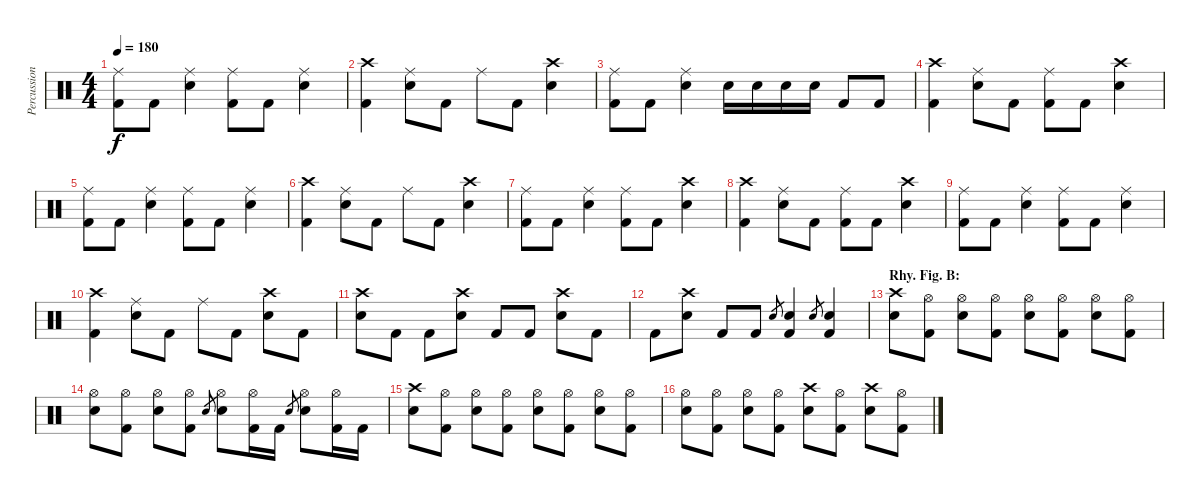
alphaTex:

\track ("Percussion" "Percussion") {instrument percussion}
\staff {score}
\articulation defaults
\ts (4 4)
\tempo 180
\clef neutral
\ks c
("Ride (middle)" "Kick (hit) 2").8{dy f} "Kick (hit) 2".8 ("Ride (middle)" "Snare (hit) 2").4 ("Ride (middle)" "Kick (hit) 2").8 "Kick (hit) 2".8 ("Ride (middle)" "Snare (hit) 2").4 |
("Crash high (hit)" "Kick (hit) 2").4 ("Ride (middle)" "Snare (hit) 2").8 "Kick (hit) 2".8 "Ride (middle)".8 "Kick (hit) 2".8 ("Crash high (hit)" "Snare (hit) 2").4 |
("Ride (middle)" "Kick (hit) 2").8 "Kick (hit) 2".8 ("Ride (middle)" "Snare (hit) 2").4 "Snare (hit) 2".16 "Snare (hit) 2".16 "Snare (hit) 2".16 "Snare (hit) 2".16 "Kick (hit) 2".8 "Kick (hit) 2".8 |
("Crash high (hit)" "Kick (hit) 2").4 ("Ride (middle)" "Snare (hit) 2").8 "Kick (hit) 2".8 ("Ride (middle)" "Kick (hit) 2").8 "Kick (hit) 2".8 ("Crash high (hit)" "Snare (hit) 2").4 |
("Ride (middle)" "Kick (hit) 2").8 "Kick (hit) 2".8 ("Ride (middle)" "Snare (hit) 2").4 ("Ride (middle)" "Kick (hit) 2").8 "Kick (hit) 2".8 ("Ride (middle)" "Snare (hit) 2").4 |
("Crash high (hit)" "Kick (hit) 2").4 ("Ride (middle)" "Snare (hit) 2").8 "Kick (hit) 2".8 "Ride (middle)".8 "Kick (hit) 2".8 ("Crash high (hit)" "Snare (hit) 2").4 |
("Ride (middle)" "Kick (hit) 2").8 "Kick (hit) 2".8 ("Ride (middle)" "Snare (hit) 2").4 ("Ride (middle)" "Kick (hit) 2").8 "Kick (hit) 2".8 ("Crash high (hit)" "Snare (hit) 2").4 |
("Crash high (hit)" "Kick (hit) 2").4 ("Ride (middle)" "Snare (hit) 2").8 "Kick (hit) 2".8 ("Ride (middle)" "Kick (hit) 2").8 "Kick (hit) 2".8 ("Crash high (hit)" "Snare (hit) 2").4 |
("Ride (middle)" "Kick (hit) 2").8 "Kick (hit) 2".8 ("Ride (middle)" "Snare (hit) 2").4 ("Ride (middle)" "Kick (hit) 2").8 "Kick (hit) 2".8 ("Ride (middle)" "Snare (hit) 2").4 |
("Crash high (hit)" "Kick (hit) 2").4 ("Ride (middle)" "Snare (hit) 2").8 "Kick (hit) 2".8 "Ride (middle)".8 "Kick (hit) 2".8 ("Crash high (hit)" "Snare (hit) 2").8 "Kick (hit) 2".8 |
("Crash high (hit)" "Snare (hit) 2").8 "Kick (hit) 2".8 "Kick (hit) 2".8 ("Crash high (hit)" "Snare (hit) 2").8 "Kick (hit) 2".8 "Kick (hit) 2".8 ("Crash high (hit)" "Snare (hit) 2").8 "Kick (hit) 2".8 |
"Kick (hit) 2".8 ("Crash high (hit)" "Snare (hit) 2").8 "Kick (hit) 2".8 "Kick (hit) 2".8 "Snare (hit) 2".8{gr} ("Snare (hit) 2" "Kick (hit) 2").4 "Snare (hit) 2".8{gr} ("Snare (hit) 2" "Kick (hit) 2").4 |
\section ("" "Rhy. Fig. B:")
("Crash high (hit)" "Snare (hit) 2").8 ("Hi-Hat (open)" "Kick (hit) 2").8 ("Hi-Hat (open)" "Snare (hit) 2").8 ("Hi-Hat (open)" "Kick (hit) 2").8 ("Hi-Hat (open)" "Snare (hit) 2").8 ("Hi-Hat (open)" "Kick (hit) 2").8 ("Hi-Hat (open)" "Snare (hit) 2").8 ("Hi-Hat (open)" "Kick (hit) 2").8 |
("Hi-Hat (open)" "Snare (hit) 2").8 ("Hi-Hat (open)" "Kick (hit) 2").8 ("Hi-Hat (open)" "Snare (hit) 2").8 ("Hi-Hat (open)" "Kick (hit) 2").8 "Snare (hit) 2".8{gr} ("Hi-Hat (open)" "Snare (hit) 2").8 ("Hi-Hat (open)" "Kick (hit) 2").16 "Kick (hit) 2".16 "Snare (hit) 2".8{gr} ("Hi-Hat (open)" "Snare (hit) 2").8 ("Hi-Hat (open)" "Kick (hit) 2").16 "Kick (hit) 2".16 |
("Crash high (hit)" "Snare (hit) 2").8 ("Hi-Hat (open)" "Kick (hit) 2").8 ("Hi-Hat (open)" "Snare (hit) 2").8 ("Hi-Hat (open)" "Kick (hit) 2").8 ("Hi-Hat (open)" "Snare (hit) 2").8 ("Hi-Hat (open)" "Kick (hit) 2").8 ("Hi-Hat (open)" "Snare (hit) 2").8 ("Hi-Hat (open)" "Kick (hit) 2").8 |
("Hi-Hat (open)" "Snare (hit) 2").8 ("Hi-Hat (open)" "Kick (hit) 2").8 ("Hi-Hat (open)" "Snare (hit) 2").8 ("Hi-Hat (open)" "Kick (hit) 2").8 ("Crash high (hit)" "Snare (hit) 2").8 ("Hi-Hat (open)" "Kick (hit) 2").8 ("Crash high (hit)" "Snare (hit) 2").8 ("Hi-Hat (open)" "Kick (hit) 2").8
